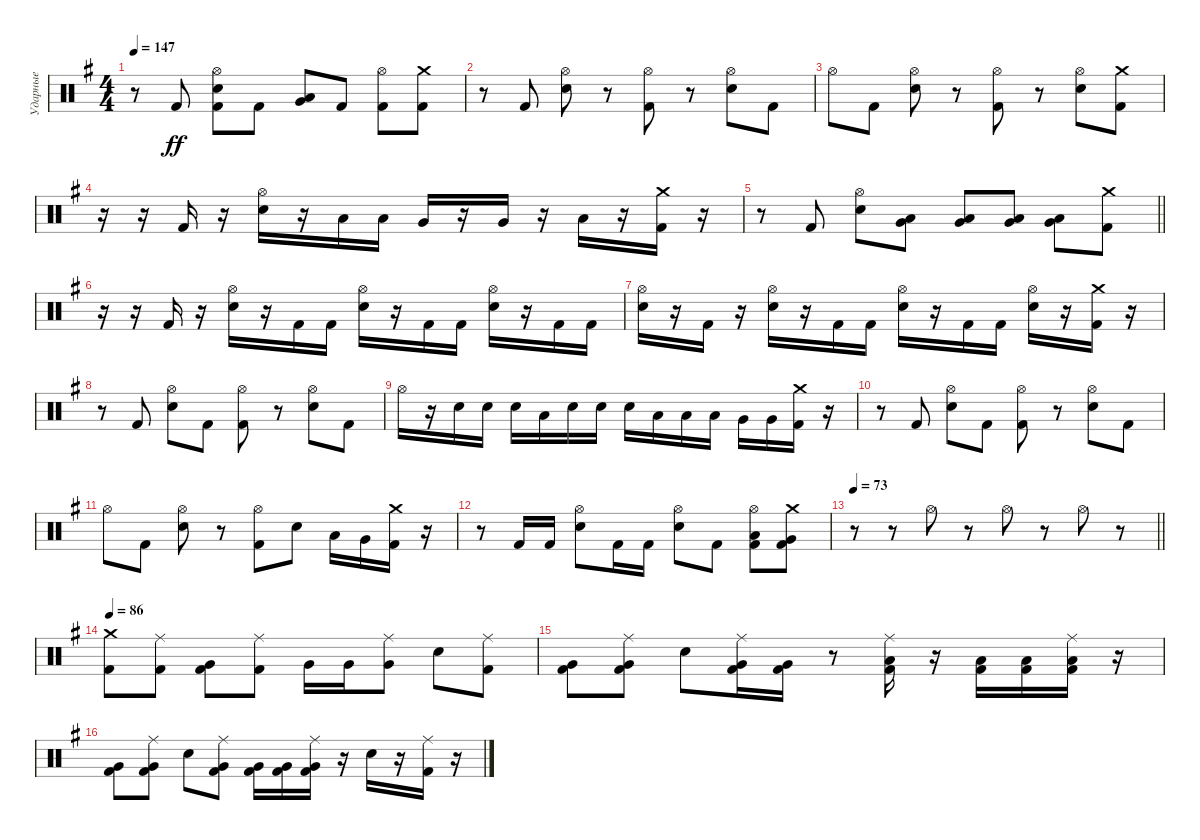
\track ("Ударные" "Ударные") {instrument percussion}
\staff {score}
\articulation defaults
\ts (4 4)
\tempo 147
\clef neutral
\ks eminor
r.8{dy ff} "Kick (hit) 2".8 ("Kick (hit) 2" "Electric Snare (hit)" "Hi-Hat (open)").8 "Kick (hit) 2".8 ("Low Tom (hit)" "Very Low Tom (hit)").8 "Kick (hit) 2".8 ("Kick (hit) 2" "Hi-Hat (open)").8 ("Kick (hit) 2" "Crash medium (hit)").8 |
r.8 "Kick (hit) 2".8 ("Electric Snare (hit)" "Hi-Hat (open)").8 r.8 ("Kick (hit) 2" "Hi-Hat (open)").8 r.8 ("Electric Snare (hit)" "Hi-Hat (open)").8 "Kick (hit) 2".8 |
"Hi-Hat (open)".8 "Kick (hit) 2".8 ("Electric Snare (hit)" "Hi-Hat (open)").8 r.8 ("Kick (hit) 2" "Hi-Hat (open)").8 r.8 ("Electric Snare (hit)" "Hi-Hat (open)").8 ("Kick (hit) 2" "Crash medium (hit)").8 |
r.16 r.16 "Kick (hit) 2".16 r.16 ("Electric Snare (hit)" "Hi-Hat (open)").16 r.16 "Low Tom (hit)".16 "Low Tom (hit)".16 "Very Low Tom (hit)".16 r.16 "Very Low Tom (hit)".16 r.16 "Low Floor Tom (hit)".16 r.16 ("Kick (hit) 2" "Crash medium (hit)").16 r.16 |
\barLineRight lightlight
r.8 "Kick (hit) 2".8 ("Electric Snare (hit)" "Hi-Hat (open)").8 ("Low Tom (hit)" "Very Low Tom (hit)").8 ("Very Low Tom (hit)" "Low Tom (hit)").8 ("Low Tom (hit)" "Very Low Tom (hit)").8 ("Low Floor Tom (hit)" "Very Low Tom (hit)").8 ("Kick (hit) 2" "Crash medium (hit)").8 |
r.16 r.16 "Kick (hit) 2".16 r.16 ("Electric Snare (hit)" "Hi-Hat (open)").16 r.16 "Kick (hit) 2".16 "Kick (hit) 2".16 ("Electric Snare (hit)" "Hi-Hat (open)").16 r.16 "Kick (hit) 2".16 "Kick (hit) 2".16 ("Electric Snare (hit)" "Hi-Hat (open)").16 r.16 "Kick (hit) 2".16 "Kick (hit) 2".16 |
("Electric Snare (hit)" "Hi-Hat (open)").16 r.16 "Kick (hit) 2".16 r.16 ("Electric Snare (hit)" "Hi-Hat (open)").16 r.16 "Kick (hit) 2".16 "Kick (hit) 2".16 ("Electric Snare (hit)" "Hi-Hat (open)").16 r.16 "Kick (hit) 2".16 "Kick (hit) 2".16 ("Electric Snare (hit)" "Hi-Hat (open)").16 r.16 ("Kick (hit) 2" "Crash medium (hit)").16 r.16 |
r.8 "Kick (hit) 2".8 ("Electric Snare (hit)" "Hi-Hat (open)").8 "Kick (hit) 2".8 ("Kick (hit) 2" "Hi-Hat (open)").8 r.8 ("Electric Snare (hit)" "Hi-Hat (open)").8 "Kick (hit) 2".8 |
"Hi-Hat (open)".16 r.16 "Electric Snare (hit)".16 "Electric Snare (hit)".16 "Electric Snare (hit)".16 "Low Tom (hit)".16 "Electric Snare (hit)".16 "Electric Snare (hit)".16 "Electric Snare (hit)".16 "Low Tom (hit)".16 "Low Tom (hit)".16 "Low Tom (hit)".16 "Very Low Tom (hit)".16 "Very Low Tom (hit)".16 ("Kick (hit) 2" "Crash medium (hit)").16 r.16 |
r.8 "Kick (hit) 2".8 ("Electric Snare (hit)" "Hi-Hat (open)").8 "Kick (hit) 2".8 ("Kick (hit) 2" "Hi-Hat (open)").8 r.8 ("Electric Snare (hit)" "Hi-Hat (open)").8 "Kick (hit) 2".8 |
"Hi-Hat (open)".8 "Kick (hit) 2".8 ("Electric Snare (hit)" "Hi-Hat (open)").8 r.8 ("Kick (hit) 2" "Hi-Hat (open)").8 "Electric Snare (hit)".8 "Low Tom (hit)".16 "Very Low Tom (hit)".16 ("Kick (hit) 2" "Crash medium (hit)").16 r.16 |
r.8 "Kick (hit) 2".16 "Kick (hit) 2".16 ("Electric Snare (hit)" "Hi-Hat (open)").8 "Kick (hit) 2".16 "Kick (hit) 2".16 ("Electric Snare (hit)" "Hi-Hat (open)").8 "Kick (hit) 2".8 ("Kick (hit) 2" "Low Tom (hit)" "Hi-Hat (open)").8 ("Kick (hit) 2" "Very Low Tom (hit)" "Crash medium (hit)").8 |
\tempo 73
\barLineRight lightlight
r.8 r.8 "Hi-Hat (open)".8 r.8 "Hi-Hat (open)".8 r.8 "Hi-Hat (open)".8 r.8 |
\tempo 86
("Crash medium (hit)" "Kick (hit) 2").8 ("Ride (middle)" "Kick (hit) 2").8 ("Very Low Tom (hit)" "Kick (hit) 2").8 ("Ride (middle)" "Kick (hit) 2").8 "Very Low Tom (hit)".16 "Very Low Tom (hit)".16 ("Ride (middle)" "Very Low Tom (hit)").8 "Electric Snare (hit)".8 ("Ride (middle)" "Kick (hit) 2").8 |
("Very Low Tom (hit)" "Kick (hit) 2").8 ("Ride (middle)" "Very Low Tom (hit)" "Kick (hit) 2").8 "Electric Snare (hit)".8 ("Ride (middle)" "Very Low Tom (hit)" "Kick (hit) 2").16 ("Very Low Tom (hit)" "Kick (hit) 2").16 r.8 ("Ride (middle)" "Low Floor Tom (hit)" "Kick (hit) 2").16 r.16 ("Low Floor Tom (hit)" "Kick (hit) 2").16 ("Low Floor Tom (hit)" "Kick (hit) 2").16 ("Ride (middle)" "Low Floor Tom (hit)" "Kick (hit) 2").16 r.16 |
("Very Low Tom (hit)" "Kick (hit) 2").8 ("Ride (middle)" "Very Low Tom (hit)" "Kick (hit) 2").8 "Electric Snare (hit)".8 ("Ride (middle)" "Very Low Tom (hit)" "Kick (hit) 2").8 ("Very Low Tom (hit)" "Kick (hit) 2").16 ("Very Low Tom (hit)" "Kick (hit) 2").16 ("Ride (middle)" "Very Low Tom (hit)" "Kick (hit) 2").16 r.16 "Electric Snare (hit)".16 r.16 ("Ride (middle)" "Kick (hit) 2").16 r.16
